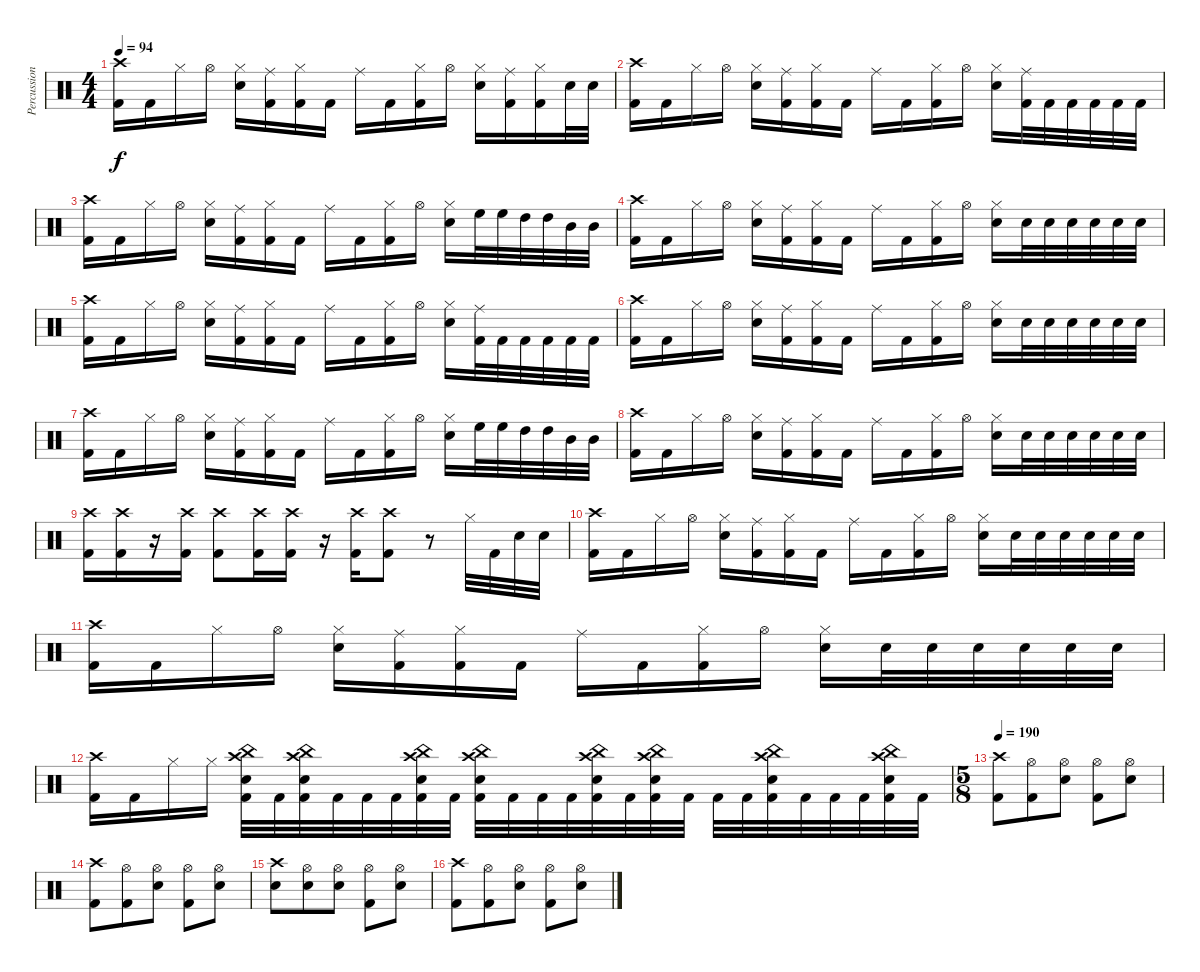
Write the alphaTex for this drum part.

\track ("Percussion" "Percussion") {instrument percussion}
\staff {score}
\articulation defaults
\ts (4 4)
\tempo 94
\clef neutral
\ks c
("Crash high (hit)" "Kick (hit) 2").16{dy f} "Kick (hit) 2".16 "Hi-Hat (closed)".16 "Hi-Hat (open)".16 ("Hi-Hat (closed)" "Electric Snare (hit)").16 ("Ride (middle)" "Kick (hit) 2").16 ("Hi-Hat (closed)" "Kick (hit) 2").16 "Kick (hit) 2".16 "Ride (middle)".16 "Kick (hit) 2".16 ("Hi-Hat (closed)" "Kick (hit) 2").16 "Hi-Hat (open)".16 ("Hi-Hat (closed)" "Electric Snare (hit)").16 ("Ride (middle)" "Kick (hit) 2").16 ("Hi-Hat (closed)" "Kick (hit) 2").16 "Electric Snare (hit)".32 "Electric Snare (hit)".32 |
("Crash high (hit)" "Kick (hit) 2").16 "Kick (hit) 2".16 "Hi-Hat (closed)".16 "Hi-Hat (open)".16 ("Hi-Hat (closed)" "Electric Snare (hit)").16 ("Ride (middle)" "Kick (hit) 2").16 ("Hi-Hat (closed)" "Kick (hit) 2").16 "Kick (hit) 2".16 "Ride (middle)".16 "Kick (hit) 2".16 ("Hi-Hat (closed)" "Kick (hit) 2").16 "Hi-Hat (open)".16 ("Hi-Hat (closed)" "Electric Snare (hit)").16 ("Ride (middle)" "Kick (hit) 2").32 "Kick (hit) 2".32 "Kick (hit) 2".32 "Kick (hit) 2".32 "Kick (hit) 2".32 "Kick (hit) 2".32 |
("Crash high (hit)" "Kick (hit) 2").16 "Kick (hit) 2".16 "Hi-Hat (closed)".16 "Hi-Hat (open)".16 ("Hi-Hat (closed)" "Electric Snare (hit)").16 ("Ride (middle)" "Kick (hit) 2").16 ("Hi-Hat (closed)" "Kick (hit) 2").16 "Kick (hit) 2".16 "Ride (middle)".16 "Kick (hit) 2".16 ("Hi-Hat (closed)" "Kick (hit) 2").16 "Hi-Hat (open)".16 ("Hi-Hat (closed)" "Electric Snare (hit)").16 "High Floor Tom (hit)".32 "High Floor Tom (hit)".32 "High Tom (hit)".32 "High Tom (hit)".32 "Mid Tom (hit)".32 "Mid Tom (hit)".32 |
("Crash high (hit)" "Kick (hit) 2").16 "Kick (hit) 2".16 "Hi-Hat (closed)".16 "Hi-Hat (open)".16 ("Hi-Hat (closed)" "Electric Snare (hit)").16 ("Ride (middle)" "Kick (hit) 2").16 ("Hi-Hat (closed)" "Kick (hit) 2").16 "Kick (hit) 2".16 "Ride (middle)".16 "Kick (hit) 2".16 ("Hi-Hat (closed)" "Kick (hit) 2").16 "Hi-Hat (open)".16 ("Hi-Hat (closed)" "Electric Snare (hit)").16 "Electric Snare (hit)".32 "Electric Snare (hit)".32 "Electric Snare (hit)".32 "Electric Snare (hit)".32 "Electric Snare (hit)".32 "Electric Snare (hit)".32 |
("Crash high (hit)" "Kick (hit) 2").16 "Kick (hit) 2".16 "Hi-Hat (closed)".16 "Hi-Hat (open)".16 ("Hi-Hat (closed)" "Electric Snare (hit)").16 ("Ride (middle)" "Kick (hit) 2").16 ("Hi-Hat (closed)" "Kick (hit) 2").16 "Kick (hit) 2".16 "Ride (middle)".16 "Kick (hit) 2".16 ("Hi-Hat (closed)" "Kick (hit) 2").16 "Hi-Hat (open)".16 ("Hi-Hat (closed)" "Electric Snare (hit)").16 ("Ride (middle)" "Kick (hit) 2").32 "Kick (hit) 2".32 "Kick (hit) 2".32 "Kick (hit) 2".32 "Kick (hit) 2".32 "Kick (hit) 2".32 |
("Crash high (hit)" "Kick (hit) 2").16 "Kick (hit) 2".16 "Hi-Hat (closed)".16 "Hi-Hat (open)".16 ("Hi-Hat (closed)" "Electric Snare (hit)").16 ("Ride (middle)" "Kick (hit) 2").16 ("Hi-Hat (closed)" "Kick (hit) 2").16 "Kick (hit) 2".16 "Ride (middle)".16 "Kick (hit) 2".16 ("Hi-Hat (closed)" "Kick (hit) 2").16 "Hi-Hat (open)".16 ("Hi-Hat (closed)" "Electric Snare (hit)").16 "Electric Snare (hit)".32 "Electric Snare (hit)".32 "Electric Snare (hit)".32 "Electric Snare (hit)".32 "Electric Snare (hit)".32 "Electric Snare (hit)".32 |
("Crash high (hit)" "Kick (hit) 2").16 "Kick (hit) 2".16 "Hi-Hat (closed)".16 "Hi-Hat (open)".16 ("Hi-Hat (closed)" "Electric Snare (hit)").16 ("Ride (middle)" "Kick (hit) 2").16 ("Hi-Hat (closed)" "Kick (hit) 2").16 "Kick (hit) 2".16 "Ride (middle)".16 "Kick (hit) 2".16 ("Hi-Hat (closed)" "Kick (hit) 2").16 "Hi-Hat (open)".16 ("Hi-Hat (closed)" "Electric Snare (hit)").16 "High Floor Tom (hit)".32 "High Floor Tom (hit)".32 "High Tom (hit)".32 "High Tom (hit)".32 "Mid Tom (hit)".32 "Mid Tom (hit)".32 |
("Crash high (hit)" "Kick (hit) 2").16 "Kick (hit) 2".16 "Hi-Hat (closed)".16 "Hi-Hat (open)".16 ("Hi-Hat (closed)" "Electric Snare (hit)").16 ("Ride (middle)" "Kick (hit) 2").16 ("Hi-Hat (closed)" "Kick (hit) 2").16 "Kick (hit) 2".16 "Ride (middle)".16 "Kick (hit) 2".16 ("Hi-Hat (closed)" "Kick (hit) 2").16 "Hi-Hat (open)".16 ("Hi-Hat (closed)" "Electric Snare (hit)").16 "Electric Snare (hit)".32 "Electric Snare (hit)".32 "Electric Snare (hit)".32 "Electric Snare (hit)".32 "Electric Snare (hit)".32 "Electric Snare (hit)".32 |
("Crash high (hit)" "Kick (hit) 2").16 ("Crash high (hit)" "Kick (hit) 2").16 r.16 ("Crash high (hit)" "Kick (hit) 2").16 ("Crash high (hit)" "Kick (hit) 2").8 ("Crash high (hit)" "Kick (hit) 2").16 ("Crash high (hit)" "Kick (hit) 2").16 r.16 ("Crash high (hit)" "Kick (hit) 2").16 ("Crash high (hit)" "Kick (hit) 2").8 r.8 "Hi-Hat (closed)".32 "Kick (hit) 2".32 "Electric Snare (hit)".32 "Electric Snare (hit)".32 |
("Crash high (hit)" "Kick (hit) 2").16 "Kick (hit) 2".16 "Hi-Hat (closed)".16 "Hi-Hat (open)".16 ("Hi-Hat (closed)" "Electric Snare (hit)").16 ("Ride (middle)" "Kick (hit) 2").16 ("Hi-Hat (closed)" "Kick (hit) 2").16 "Kick (hit) 2".16 "Ride (middle)".16 "Kick (hit) 2".16 ("Hi-Hat (closed)" "Kick (hit) 2").16 "Hi-Hat (open)".16 ("Hi-Hat (closed)" "Electric Snare (hit)").16 "Electric Snare (hit)".32 "Electric Snare (hit)".32 "Electric Snare (hit)".32 "Electric Snare (hit)".32 "Electric Snare (hit)".32 "Electric Snare (hit)".32 |
("Crash high (hit)" "Kick (hit) 2").16 "Kick (hit) 2".16 "Hi-Hat (closed)".16 "Hi-Hat (open)".16 ("Hi-Hat (closed)" "Electric Snare (hit)").16 ("Ride (middle)" "Kick (hit) 2").16 ("Hi-Hat (closed)" "Kick (hit) 2").16 "Kick (hit) 2".16 "Ride (middle)".16 "Kick (hit) 2".16 ("Hi-Hat (closed)" "Kick (hit) 2").16 "Hi-Hat (open)".16 ("Hi-Hat (closed)" "Electric Snare (hit)").16 "Electric Snare (hit)".32 "Electric Snare (hit)".32 "Electric Snare (hit)".32 "Electric Snare (hit)".32 "Electric Snare (hit)".32 "Electric Snare (hit)".32 |
("Crash high (hit)" "Kick (hit) 2").16 "Kick (hit) 2".16 "Hi-Hat (closed)".16 "Hi-Hat (closed)".16 ("Crash high (hit)" "China (hit)" "Electric Snare (hit)" "Kick (hit) 2").32 "Kick (hit) 2".32 ("Crash high (hit)" "China (hit)" "Electric Snare (hit)" "Kick (hit) 2").32 "Kick (hit) 2".32 "Kick (hit) 2".32 "Kick (hit) 2".32 ("Crash high (hit)" "China (hit)" "Electric Snare (hit)" "Kick (hit) 2").32 "Kick (hit) 2".32 ("Crash high (hit)" "China (hit)" "Electric Snare (hit)" "Kick (hit) 2").32 "Kick (hit) 2".32 "Kick (hit) 2".32 "Kick (hit) 2".32 ("Crash high (hit)" "China (hit)" "Electric Snare (hit)" "Kick (hit) 2").32 "Kick (hit) 2".32 ("Crash high (hit)" "China (hit)" "Electric Snare (hit)" "Kick (hit) 2").32 "Kick (hit) 2".32 "Kick (hit) 2".32 "Kick (hit) 2".32 ("Crash high (hit)" "China (hit)" "Electric Snare (hit)" "Kick (hit) 2").32 "Kick (hit) 2".32 "Kick (hit) 2".32 "Kick (hit) 2".32 ("Crash high (hit)" "China (hit)" "Electric Snare (hit)" "Kick (hit) 2").32 "Kick (hit) 2".32 |
\ts (5 8)
\tempo 190
("Crash high (hit)" "Kick (hit) 2").8 ("Hi-Hat (open)" "Kick (hit) 2").8 ("Hi-Hat (open)" "Electric Snare (hit)").8 ("Hi-Hat (open)" "Kick (hit) 2").8 ("Hi-Hat (open)" "Electric Snare (hit)").8 |
("Crash high (hit)" "Kick (hit) 2").8 ("Hi-Hat (open)" "Kick (hit) 2").8 ("Hi-Hat (open)" "Electric Snare (hit)").8 ("Hi-Hat (open)" "Kick (hit) 2").8 ("Hi-Hat (open)" "Electric Snare (hit)").8 |
("Crash high (hit)" "Electric Snare (hit)").8 ("Hi-Hat (open)" "Electric Snare (hit)").8 ("Hi-Hat (open)" "Electric Snare (hit)").8 ("Hi-Hat (open)" "Kick (hit) 2").8 ("Hi-Hat (open)" "Electric Snare (hit)").8 |
("Crash high (hit)" "Kick (hit) 2").8 ("Hi-Hat (open)" "Kick (hit) 2").8 ("Hi-Hat (open)" "Electric Snare (hit)").8 ("Hi-Hat (open)" "Kick (hit) 2").8 ("Hi-Hat (open)" "Electric Snare (hit)").8
